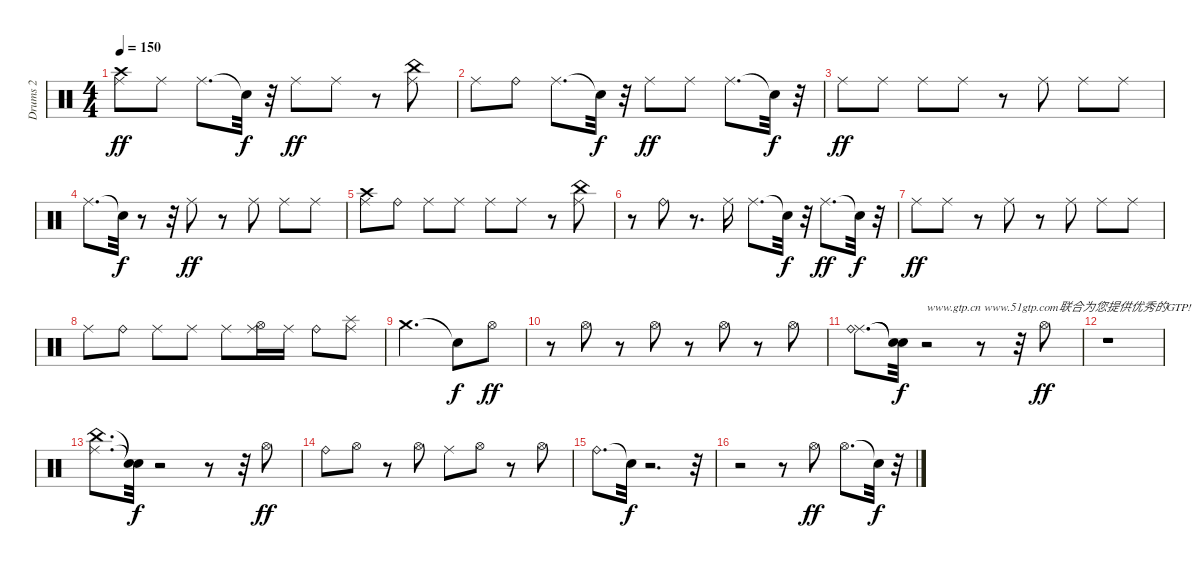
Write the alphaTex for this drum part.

\track ("Drums 2" "Drums 2") {instrument percussion}
\staff {score}
\articulation defaults
\ts (4 4)
\tempo 150
\clef neutral
\ks c
("Crash high (hit)" "Ride (middle)").8{dy ff} "Ride (middle)".8 "Ride (middle)".8{d} "Snare (hit)"{t}.32{dy f} r.32 "Ride (middle)".8{dy ff} "Ride (middle)".8 r.8 ("Ride (middle)" "China (hit)").8 |
"Ride (middle)".8 "Ride (bell)".8 "Ride (middle)".8{d} "Snare (hit)"{t}.32{dy f} r.32 "Ride (middle)".8{dy ff} "Ride (middle)".8 "Ride (middle)".8{d} "Snare (hit)"{t}.32{dy f} r.32 |
"Ride (middle)".8{dy ff} "Ride (middle)".8 "Ride (middle)".8 "Ride (middle)".8 r.8 "Ride (middle)".8 "Ride (middle)".8 "Ride (middle)".8 |
"Ride (middle)".8{d} "Snare (hit)"{t}.32{dy f} r.8 r.32 "Ride (middle)".8{dy ff} r.8 "Ride (middle)".8 "Ride (middle)".8 "Ride (middle)".8 |
("Crash high (hit)" "Ride (middle)").8 "Ride (bell)".8 "Ride (middle)".8 "Ride (middle)".8 "Ride (middle)".8 "Ride (middle)".8 r.8 ("Ride (middle)" "China (hit)").8 |
r.8 "Ride (bell)".8 r.8{d} "Ride (middle)".16 "Ride (middle)".8{d} "Snare (hit)"{t}.32{dy f} r.32 "Ride (middle)".8{d dy ff} "Snare (hit)"{t}.32{dy f} r.32 |
"Ride (middle)".8{dy ff} "Ride (middle)".8 r.8 "Ride (middle)".8 r.8 "Ride (middle)".8 "Ride (middle)".8 "Ride (middle)".8 |
"Ride (middle)".8 "Ride (bell)".8 "Ride (middle)".8 "Ride (middle)".8 "Ride (middle)".8 ("Hi-Hat (open)" "Ride (middle)").16 "Ride (middle)".16 "Ride (bell)".8 ("Ride (middle)" "Splash (hit)").8 |
"Crash medium (hit)".2{d} "Snare (hit)"{t}.8{dy f} "Hi-Hat (open)".8{dy ff} |
r.8 "Hi-Hat (open)".8 r.8 "Hi-Hat (open)".8 r.8 "Hi-Hat (open)".8 r.8 "Hi-Hat (open)".8 |
("Ride (middle)" "Ride (bell)").8{d} ("Snare (hit)"{t} "Snare (hit)"{t}).32{dy f} r.2{txt "www.gtp.cn www.51gtp.com联合为您提供优秀的GTP!"} r.8 r.32 "Hi-Hat (open)".8{dy ff} |
r.1 |
("Ride (middle)" "China (hit)").8{d} ("Snare (hit)"{t} "Snare (hit)"{t}).32{dy f} r.2 r.8 r.32 "Hi-Hat (open)".8{dy ff} |
"Ride (bell)".8 "Hi-Hat (open)".8 r.8 "Hi-Hat (open)".8 "Ride (middle)".8 "Hi-Hat (open)".8 r.8 "Hi-Hat (open)".8 |
"Ride (bell)".8{d} "Snare (hit)"{t}.32{dy f} r.2{d} r.32 |
r.2 r.8 "Hi-Hat (open)".8{dy ff} "Hi-Hat (open)".8{d} "Snare (hit)"{t}.32{dy f} r.32
